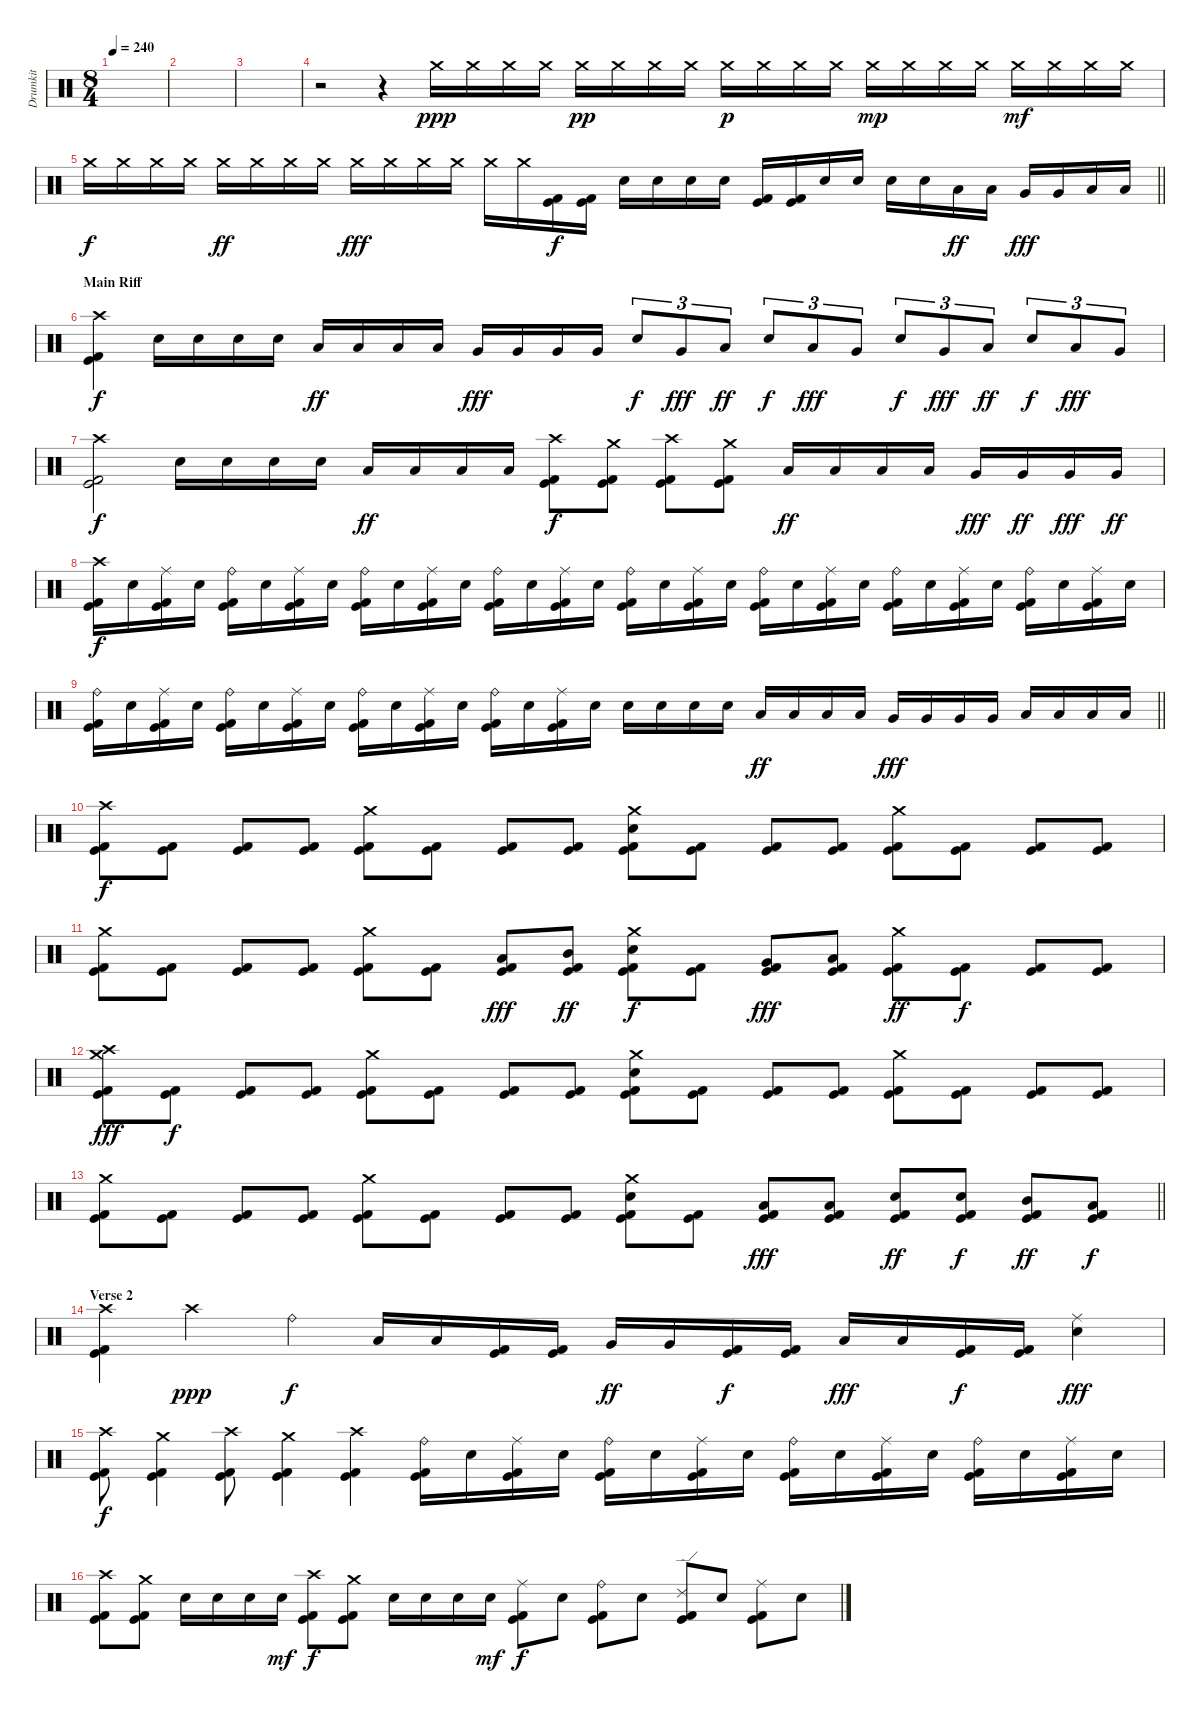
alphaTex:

\track ("Drumkit" "Drumkit") {instrument percussion}
\staff {score}
\articulation defaults
\ts (8 4)
\tempo 240
\clef neutral
\ks c
|
|
|
r.2{volume 0} r.4{volume 14} "Crash medium (hit)".16{dy ppp} "Crash medium (hit)".16 "Crash medium (hit)".16 "Crash medium (hit)".16 "Crash medium (hit)".16{dy pp} "Crash medium (hit)".16 "Crash medium (hit)".16 "Crash medium (hit)".16 "Crash medium (hit)".16{dy p} "Crash medium (hit)".16 "Crash medium (hit)".16 "Crash medium (hit)".16 "Crash medium (hit)".16{dy mp} "Crash medium (hit)".16 "Crash medium (hit)".16 "Crash medium (hit)".16 "Crash medium (hit)".16{dy mf} "Crash medium (hit)".16 "Crash medium (hit)".16 "Crash medium (hit)".16 |
\barLineRight lightlight "Crash medium (hit)".16{dy f} "Crash medium (hit)".16 "Crash medium (hit)".16 "Crash medium (hit)".16 "Crash medium (hit)".16{dy ff} "Crash medium (hit)".16 "Crash medium (hit)".16 "Crash medium (hit)".16 "Crash medium (hit)".16{dy fff} "Crash medium (hit)".16 "Crash medium (hit)".16 "Crash medium (hit)".16 "Crash medium (hit)".16 "Crash medium (hit)".16
("Kick (hit)" "Kick (hit) 2").16{dy f} ("Kick (hit)" "Kick (hit) 2").16 "Electric Snare (hit)".16 "Electric Snare (hit)".16 "Electric Snare (hit)".16 "Electric Snare (hit)".16 ("Kick (hit)" "Kick (hit) 2").16 ("Kick (hit)" "Kick (hit) 2").16 "Electric Snare (hit)".16 "Electric Snare (hit)".16 "Electric Snare (hit)".16 "Electric Snare (hit)".16 "Low Tom (hit)".16{dy ff} "Low Tom (hit)".16 "Very Low Tom (hit)".16{dy fff} "Very Low Tom (hit)".16 "Low Floor Tom (hit)".16 "Low Floor Tom (hit)".16 |
\section ("" "Main Riff")
("Crash high (hit)" "Kick (hit)" "Kick (hit) 2").4{dy f} "Electric Snare (hit)".16 "Electric Snare (hit)".16 "Electric Snare (hit)".16 "Electric Snare (hit)".16 "Low Tom (hit)".16{dy ff} "Low Tom (hit)".16 "Low Tom (hit)".16 "Low Tom (hit)".16 "Very Low Tom (hit)".16{dy fff} "Very Low Tom (hit)".16 "Very Low Tom (hit)".16 "Very Low Tom (hit)".16 "Electric Snare (hit)".8{tu (3 2) dy f} "Very Low Tom (hit)".8{tu (3 2) dy fff} "Low Tom (hit)".8{tu (3 2) dy ff} "Electric Snare (hit)".8{tu (3 2) dy f} "Low Floor Tom (hit)".8{tu (3 2) dy fff} "Very Low Tom (hit)".8{tu (3 2)} "Electric Snare (hit)".8{tu (3 2) dy f} "Very Low Tom (hit)".8{tu (3 2) dy fff} "Low Tom (hit)".8{tu (3 2) dy ff} "Electric Snare (hit)".8{tu (3 2) dy f} "Low Floor Tom (hit)".8{tu (3 2) dy fff} "Very Low Tom (hit)".8{tu (3 2)} |
("Crash high (hit)" "Kick (hit)" "Kick (hit) 2").2{dy f} "Electric Snare (hit)".16 "Electric Snare (hit)".16 "Electric Snare (hit)".16 "Electric Snare (hit)".16 "Low Tom (hit)".16{dy ff} "Low Tom (hit)".16 "Low Tom (hit)".16 "Low Tom (hit)".16 ("Crash high (hit)" "Kick (hit)" "Kick (hit) 2").8{dy f} ("Crash medium (hit)" "Kick (hit)" "Kick (hit) 2").8 ("Crash high (hit)" "Kick (hit)" "Kick (hit) 2").8 ("Crash medium (hit)" "Kick (hit)" "Kick (hit) 2").8 "Low Tom (hit)".16{dy ff} "Low Tom (hit)".16 "Low Tom (hit)".16 "Low Tom (hit)".16 "Very Low Tom (hit)".16{dy fff} "Very Low Tom (hit)".16{dy ff} "Very Low Tom (hit)".16{dy fff} "Very Low Tom (hit)".16{dy ff} |
("Crash high (hit)" "Kick (hit)" "Kick (hit) 2").16{dy f} "Electric Snare (hit)".16 ("Ride (middle)" "Kick (hit)" "Kick (hit) 2").16 "Electric Snare (hit)".16 ("Ride (bell)" "Kick (hit)" "Kick (hit) 2").16 "Electric Snare (hit)".16 ("Ride (middle)" "Kick (hit)" "Kick (hit) 2").16 "Electric Snare (hit)".16 ("Ride (bell)" "Kick (hit)" "Kick (hit) 2").16 "Electric Snare (hit)".16 ("Ride (middle)" "Kick (hit)" "Kick (hit) 2").16 "Electric Snare (hit)".16 ("Ride (bell)" "Kick (hit)" "Kick (hit) 2").16 "Electric Snare (hit)".16 ("Ride (middle)" "Kick (hit)" "Kick (hit) 2").16 "Electric Snare (hit)".16 ("Ride (bell)" "Kick (hit)" "Kick (hit) 2").16 "Electric Snare (hit)".16 ("Ride (middle)" "Kick (hit)" "Kick (hit) 2").16 "Electric Snare (hit)".16 ("Ride (bell)" "Kick (hit)" "Kick (hit) 2").16 "Electric Snare (hit)".16 ("Ride (middle)" "Kick (hit)" "Kick (hit) 2").16 "Electric Snare (hit)".16 ("Ride (bell)" "Kick (hit)" "Kick (hit) 2").16 "Electric Snare (hit)".16 ("Ride (middle)" "Kick (hit)" "Kick (hit) 2").16 "Electric Snare (hit)".16 ("Ride (bell)" "Kick (hit)" "Kick (hit) 2").16 "Electric Snare (hit)".16 ("Ride (middle)" "Kick (hit)" "Kick (hit) 2").16 "Electric Snare (hit)".16 |
\barLineRight lightlight
("Ride (bell)" "Kick (hit)" "Kick (hit) 2").16 "Electric Snare (hit)".16 ("Ride (middle)" "Kick (hit)" "Kick (hit) 2").16 "Electric Snare (hit)".16 ("Ride (bell)" "Kick (hit)" "Kick (hit) 2").16 "Electric Snare (hit)".16 ("Ride (middle)" "Kick (hit)" "Kick (hit) 2").16 "Electric Snare (hit)".16 ("Ride (bell)" "Kick (hit)" "Kick (hit) 2").16 "Electric Snare (hit)".16 ("Ride (middle)" "Kick (hit)" "Kick (hit) 2").16 "Electric Snare (hit)".16 ("Ride (bell)" "Kick (hit)" "Kick (hit) 2").16 "Electric Snare (hit)".16 ("Ride (middle)" "Kick (hit)" "Kick (hit) 2").16 "Electric Snare (hit)".16 "Electric Snare (hit)".16 "Electric Snare (hit)".16 "Electric Snare (hit)".16 "Electric Snare (hit)".16 "Low Tom (hit)".16{dy ff} "Low Tom (hit)".16 "Low Tom (hit)".16 "Low Tom (hit)".16 "Very Low Tom (hit)".16{dy fff} "Very Low Tom (hit)".16 "Very Low Tom (hit)".16 "Very Low Tom (hit)".16 "Low Floor Tom (hit)".16 "Low Floor Tom (hit)".16 "Low Floor Tom (hit)".16 "Low Floor Tom (hit)".16 |
("Crash high (hit)" "Kick (hit)" "Kick (hit) 2").8{dy f} ("Kick (hit)" "Kick (hit) 2").8 ("Kick (hit)" "Kick (hit) 2").8 ("Kick (hit)" "Kick (hit) 2").8 ("Crash medium (hit)" "Kick (hit)" "Kick (hit) 2").8 ("Kick (hit)" "Kick (hit) 2").8 ("Kick (hit)" "Kick (hit) 2").8 ("Kick (hit)" "Kick (hit) 2").8 ("Crash medium (hit)" "Electric Snare (hit)" "Kick (hit)" "Kick (hit) 2").8 ("Kick (hit)" "Kick (hit) 2").8 ("Kick (hit)" "Kick (hit) 2").8 ("Kick (hit)" "Kick (hit) 2").8 ("Crash medium (hit)" "Kick (hit)" "Kick (hit) 2").8 ("Kick (hit)" "Kick (hit) 2").8 ("Kick (hit)" "Kick (hit) 2").8 ("Kick (hit)" "Kick (hit) 2").8 |
("Crash medium (hit)" "Kick (hit)" "Kick (hit) 2").8 ("Kick (hit)" "Kick (hit) 2").8 ("Kick (hit)" "Kick (hit) 2").8 ("Kick (hit)" "Kick (hit) 2").8 ("Crash medium (hit)" "Kick (hit)" "Kick (hit) 2").8 ("Kick (hit)" "Kick (hit) 2").8 ("Low Tom (hit)" "Kick (hit)" "Kick (hit) 2").8{dy fff} ("Mid Tom (hit)" "Kick (hit)" "Kick (hit) 2").8{dy ff} ("Crash medium (hit)" "Electric Snare (hit)" "Kick (hit)" "Kick (hit) 2").8{dy f} ("Kick (hit)" "Kick (hit) 2").8 ("Very Low Tom (hit)" "Kick (hit)" "Kick (hit) 2").8{dy fff} ("Low Tom (hit)" "Kick (hit)" "Kick (hit) 2").8 ("Crash medium (hit)" "Kick (hit)" "Kick (hit) 2").8{dy ff} ("Kick (hit)" "Kick (hit) 2").8{dy f} ("Kick (hit)" "Kick (hit) 2").8 ("Kick (hit)" "Kick (hit) 2").8 |
("Crash high (hit)" "Crash medium (hit)" "Kick (hit)" "Kick (hit) 2").8{dy fff} ("Kick (hit)" "Kick (hit) 2").8{dy f} ("Kick (hit)" "Kick (hit) 2").8 ("Kick (hit)" "Kick (hit) 2").8 ("Crash medium (hit)" "Kick (hit)" "Kick (hit) 2").8 ("Kick (hit)" "Kick (hit) 2").8 ("Kick (hit)" "Kick (hit) 2").8 ("Kick (hit)" "Kick (hit) 2").8 ("Crash medium (hit)" "Electric Snare (hit)" "Kick (hit)" "Kick (hit) 2").8 ("Kick (hit)" "Kick (hit) 2").8 ("Kick (hit)" "Kick (hit) 2").8 ("Kick (hit)" "Kick (hit) 2").8 ("Crash medium (hit)" "Kick (hit)" "Kick (hit) 2").8 ("Kick (hit)" "Kick (hit) 2").8 ("Kick (hit)" "Kick (hit) 2").8 ("Kick (hit)" "Kick (hit) 2").8 |
\barLineRight lightlight
("Crash medium (hit)" "Kick (hit)" "Kick (hit) 2").8 ("Kick (hit)" "Kick (hit) 2").8 ("Kick (hit)" "Kick (hit) 2").8 ("Kick (hit)" "Kick (hit) 2").8 ("Crash medium (hit)" "Kick (hit)" "Kick (hit) 2").8 ("Kick (hit)" "Kick (hit) 2").8 ("Kick (hit)" "Kick (hit) 2").8 ("Kick (hit)" "Kick (hit) 2").8 ("Crash medium (hit)" "Electric Snare (hit)" "Kick (hit)" "Kick (hit) 2").8 ("Kick (hit)" "Kick (hit) 2").8 ("Low Tom (hit)" "Kick (hit)" "Kick (hit) 2").8{dy fff} ("Low Tom (hit)" "Kick (hit)" "Kick (hit) 2").8 ("Electric Snare (hit)" "Kick (hit)" "Kick (hit) 2").8{dy ff} ("Electric Snare (hit)" "Kick (hit)" "Kick (hit) 2").8{dy f} ("Mid Tom (hit)" "Kick (hit)" "Kick (hit) 2").8{dy ff} ("Low Tom (hit)" "Kick (hit)" "Kick (hit) 2").8{dy f} |
\section ("" "Verse 2")
("Crash high (hit)" "Kick (hit)" "Kick (hit) 2").4 "Crash high (hit)".2{dy ppp} "Ride (bell)".4{dy f} "Low Tom (hit)".16 "Low Tom (hit)".16 ("Kick (hit)" "Kick (hit) 2").16 ("Kick (hit)" "Kick (hit) 2").16 "Very Low Tom (hit)".16{dy ff} "Very Low Tom (hit)".16 ("Kick (hit)" "Kick (hit) 2").16{dy f} ("Kick (hit)" "Kick (hit) 2").16 "Low Floor Tom (hit)".16{dy fff} "Low Floor Tom (hit)".16 ("Kick (hit)" "Kick (hit) 2").16{dy f} ("Kick (hit)" "Kick (hit) 2").16 ("Ride (middle)" "Electric Snare (hit)").4{dy fff} |
("Crash high (hit)" "Kick (hit)" "Kick (hit) 2").8{dy f} ("Crash medium (hit)" "Kick (hit)" "Kick (hit) 2").4 ("Crash high (hit)" "Kick (hit)" "Kick (hit) 2").8 ("Crash medium (hit)" "Kick (hit)" "Kick (hit) 2").4 ("Crash high (hit)" "Kick (hit)" "Kick (hit) 2").4 ("Ride (bell)" "Kick (hit)" "Kick (hit) 2").16 "Electric Snare (hit)".16 ("Ride (middle)" "Kick (hit)" "Kick (hit) 2").16 "Electric Snare (hit)".16 ("Ride (bell)" "Kick (hit)" "Kick (hit) 2").16 "Electric Snare (hit)".16 ("Ride (middle)" "Kick (hit)" "Kick (hit) 2").16 "Electric Snare (hit)".16 ("Ride (bell)" "Kick (hit)" "Kick (hit) 2").16 "Electric Snare (hit)".16 ("Ride (middle)" "Kick (hit)" "Kick (hit) 2").16 "Electric Snare (hit)".16 ("Ride (bell)" "Kick (hit)" "Kick (hit) 2").16 "Electric Snare (hit)".16 ("Ride (middle)" "Kick (hit)" "Kick (hit) 2").16 "Electric Snare (hit)".16 |
("Crash high (hit)" "Kick (hit)" "Kick (hit) 2").8 ("Crash medium (hit)" "Kick (hit)" "Kick (hit) 2").8 "Electric Snare (hit)".16 "Electric Snare (hit)".16 "Electric Snare (hit)".16 "Electric Snare (hit)".16{dy mf} ("Crash high (hit)" "Kick (hit)" "Kick (hit) 2").8{dy f} ("Crash medium (hit)" "Kick (hit)" "Kick (hit) 2").8 "Electric Snare (hit)".16 "Electric Snare (hit)".16 "Electric Snare (hit)".16 "Electric Snare (hit)".16{dy mf} ("Ride (middle)" "Kick (hit)" "Kick (hit) 2").8{dy f} "Electric Snare (hit)".8 ("Ride (bell)" "Kick (hit)" "Kick (hit) 2").8 "Electric Snare (hit)".8 ("Ride (edge) 2" "Kick (hit)" "Kick (hit) 2").8 "Electric Snare (hit)".8 ("Ride (middle)" "Kick (hit)" "Kick (hit) 2").8 "Electric Snare (hit)".8
